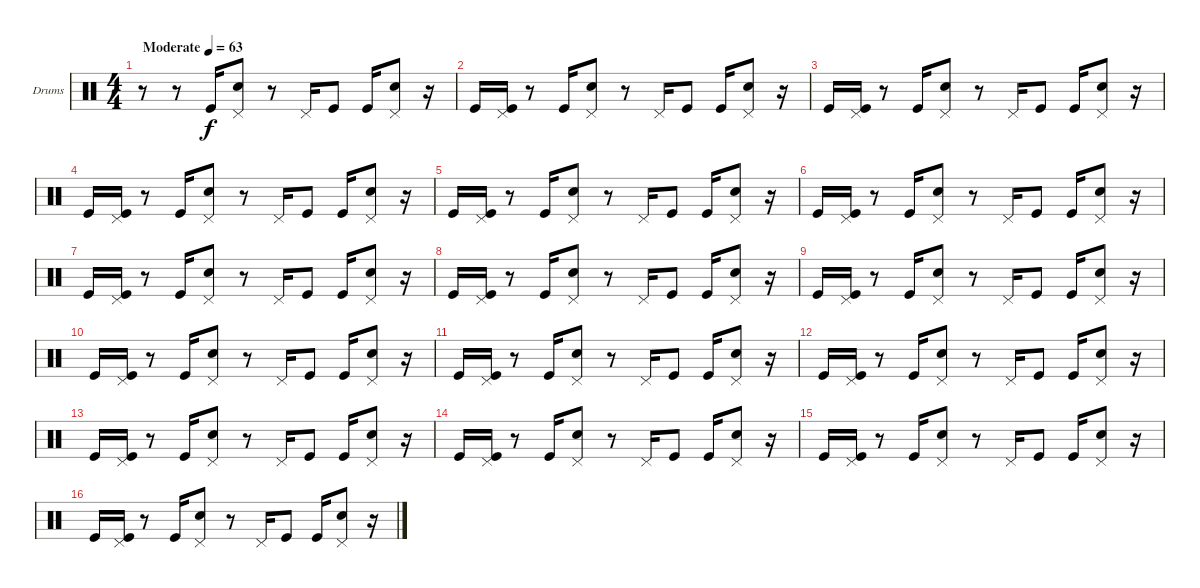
\bracketExtendMode groupsimilarinstruments
\firstSystemTrackNameOrientation horizontal
\otherSystemsTrackNameOrientation horizontal
\track ("Drumkit" "Drums") {instrument percussion}
\staff {score}
\articulation defaults
\ts (4 4)
\beaming (8 2 2 2 2)
\tempo (63 "Moderate")
\clef neutral
\ks c
r.8{dy f} r.8 "Kick (hit)".16 ("Pedal Hi-Hat (hit)" "Snare (hit) 2").8 r.8 "Pedal Hi-Hat (hit)".16 "Kick (hit)".8 "Kick (hit)".16 ("Pedal Hi-Hat (hit)" "Snare (hit) 2").8 r.16 |
"Kick (hit)".16 ("Pedal Hi-Hat (hit)" "Kick (hit)").16 r.8 "Kick (hit)".16 ("Pedal Hi-Hat (hit)" "Snare (hit) 2").8 r.8 "Pedal Hi-Hat (hit)".16 "Kick (hit)".8 "Kick (hit)".16 ("Pedal Hi-Hat (hit)" "Snare (hit) 2").8 r.16 |
"Kick (hit)".16 ("Pedal Hi-Hat (hit)" "Kick (hit)").16 r.8 "Kick (hit)".16 ("Pedal Hi-Hat (hit)" "Snare (hit) 2").8 r.8 "Pedal Hi-Hat (hit)".16 "Kick (hit)".8 "Kick (hit)".16 ("Pedal Hi-Hat (hit)" "Snare (hit) 2").8 r.16 |
"Kick (hit)".16 ("Pedal Hi-Hat (hit)" "Kick (hit)").16 r.8 "Kick (hit)".16 ("Pedal Hi-Hat (hit)" "Snare (hit) 2").8 r.8 "Pedal Hi-Hat (hit)".16 "Kick (hit)".8 "Kick (hit)".16 ("Pedal Hi-Hat (hit)" "Snare (hit) 2").8 r.16 |
"Kick (hit)".16 ("Pedal Hi-Hat (hit)" "Kick (hit)").16 r.8 "Kick (hit)".16 ("Pedal Hi-Hat (hit)" "Snare (hit) 2").8 r.8 "Pedal Hi-Hat (hit)".16 "Kick (hit)".8 "Kick (hit)".16 ("Pedal Hi-Hat (hit)" "Snare (hit) 2").8 r.16 |
"Kick (hit)".16 ("Pedal Hi-Hat (hit)" "Kick (hit)").16 r.8 "Kick (hit)".16 ("Pedal Hi-Hat (hit)" "Snare (hit) 2").8 r.8 "Pedal Hi-Hat (hit)".16 "Kick (hit)".8 "Kick (hit)".16 ("Pedal Hi-Hat (hit)" "Snare (hit) 2").8 r.16 |
"Kick (hit)".16 ("Pedal Hi-Hat (hit)" "Kick (hit)").16 r.8 "Kick (hit)".16 ("Pedal Hi-Hat (hit)" "Snare (hit) 2").8 r.8 "Pedal Hi-Hat (hit)".16 "Kick (hit)".8 "Kick (hit)".16 ("Pedal Hi-Hat (hit)" "Snare (hit) 2").8 r.16 |
"Kick (hit)".16 ("Pedal Hi-Hat (hit)" "Kick (hit)").16 r.8 "Kick (hit)".16 ("Pedal Hi-Hat (hit)" "Snare (hit) 2").8 r.8 "Pedal Hi-Hat (hit)".16 "Kick (hit)".8 "Kick (hit)".16 ("Pedal Hi-Hat (hit)" "Snare (hit) 2").8 r.16 |
"Kick (hit)".16 ("Pedal Hi-Hat (hit)" "Kick (hit)").16 r.8 "Kick (hit)".16 ("Pedal Hi-Hat (hit)" "Snare (hit) 2").8 r.8 "Pedal Hi-Hat (hit)".16 "Kick (hit)".8 "Kick (hit)".16 ("Pedal Hi-Hat (hit)" "Snare (hit) 2").8 r.16 |
"Kick (hit)".16 ("Pedal Hi-Hat (hit)" "Kick (hit)").16 r.8 "Kick (hit)".16 ("Pedal Hi-Hat (hit)" "Snare (hit) 2").8 r.8 "Pedal Hi-Hat (hit)".16 "Kick (hit)".8 "Kick (hit)".16 ("Pedal Hi-Hat (hit)" "Snare (hit) 2").8 r.16 |
"Kick (hit)".16 ("Pedal Hi-Hat (hit)" "Kick (hit)").16 r.8 "Kick (hit)".16 ("Pedal Hi-Hat (hit)" "Snare (hit) 2").8 r.8 "Pedal Hi-Hat (hit)".16 "Kick (hit)".8 "Kick (hit)".16 ("Pedal Hi-Hat (hit)" "Snare (hit) 2").8 r.16 |
"Kick (hit)".16 ("Pedal Hi-Hat (hit)" "Kick (hit)").16 r.8 "Kick (hit)".16 ("Pedal Hi-Hat (hit)" "Snare (hit) 2").8 r.8 "Pedal Hi-Hat (hit)".16 "Kick (hit)".8 "Kick (hit)".16 ("Pedal Hi-Hat (hit)" "Snare (hit) 2").8 r.16 |
"Kick (hit)".16 ("Pedal Hi-Hat (hit)" "Kick (hit)").16 r.8 "Kick (hit)".16 ("Pedal Hi-Hat (hit)" "Snare (hit) 2").8 r.8 "Pedal Hi-Hat (hit)".16 "Kick (hit)".8 "Kick (hit)".16 ("Pedal Hi-Hat (hit)" "Snare (hit) 2").8 r.16 |
"Kick (hit)".16 ("Pedal Hi-Hat (hit)" "Kick (hit)").16 r.8 "Kick (hit)".16 ("Pedal Hi-Hat (hit)" "Snare (hit) 2").8 r.8 "Pedal Hi-Hat (hit)".16 "Kick (hit)".8 "Kick (hit)".16 ("Pedal Hi-Hat (hit)" "Snare (hit) 2").8 r.16 |
"Kick (hit)".16 ("Pedal Hi-Hat (hit)" "Kick (hit)").16 r.8 "Kick (hit)".16 ("Pedal Hi-Hat (hit)" "Snare (hit) 2").8 r.8 "Pedal Hi-Hat (hit)".16 "Kick (hit)".8 "Kick (hit)".16 ("Pedal Hi-Hat (hit)" "Snare (hit) 2").8 r.16 |
"Kick (hit)".16 ("Pedal Hi-Hat (hit)" "Kick (hit)").16 r.8 "Kick (hit)".16 ("Pedal Hi-Hat (hit)" "Snare (hit) 2").8 r.8 "Pedal Hi-Hat (hit)".16 "Kick (hit)".8 "Kick (hit)".16 ("Pedal Hi-Hat (hit)" "Snare (hit) 2").8 r.16
